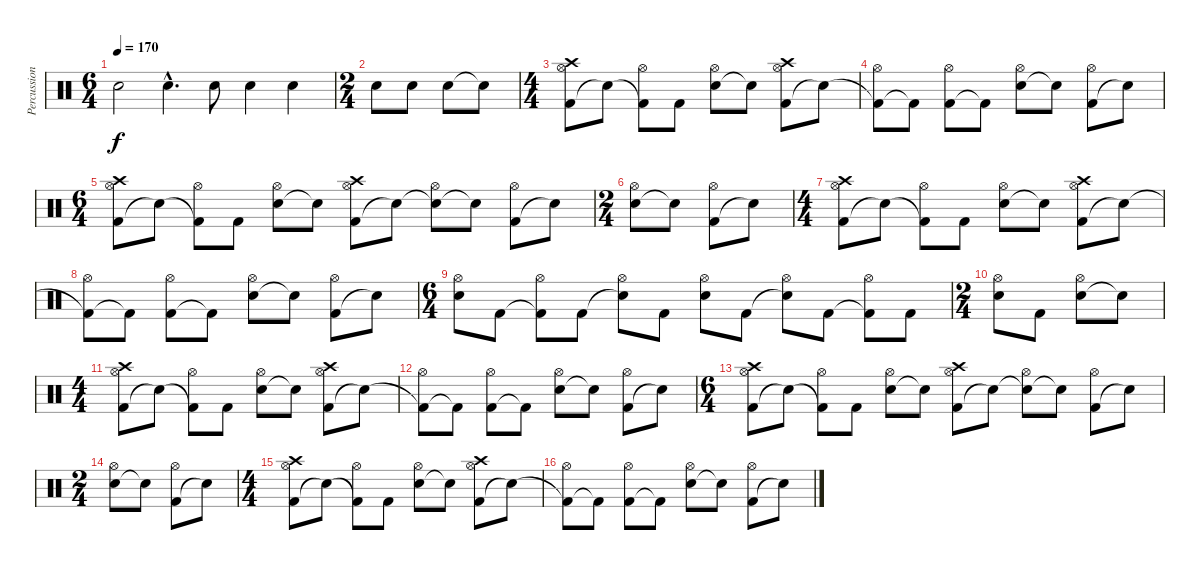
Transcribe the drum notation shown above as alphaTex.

\track ("Percussion" "Percussion") {instrument percussion}
\staff {score}
\articulation defaults
\ts (6 4)
\tempo 170
\clef neutral
\ks c "Electric Snare (hit)".2{dy f} "Electric Snare (hit)"{hac}.4{d} "Electric Snare (hit)".8 "Electric Snare (hit)".4 "Electric Snare (hit)".4
|
\ts (2 4)
"Electric Snare (hit)".8 "Electric Snare (hit)".8 "Electric Snare (hit)".8 "Snare (hit)"{t}.8 |
\ts (4 4)
("Kick (hit) 2" "Hi-Hat (open)" "Crash high (hit)").8 "Snare (hit)"{t}.8 ("Kick (hit) 2"{t} "Hi-Hat (open)").8 "Kick (hit) 2".8 ("Electric Snare (hit)" "Hi-Hat (open)").8 "Snare (hit)"{t}.8 ("Kick (hit) 2" "Hi-Hat (open)" "Crash high (hit)").8 "Snare (hit)"{t}.8 |
("Kick (hit) 2"{t} "Hi-Hat (open)").8 "Kick (hit) 2"{t}.8 ("Kick (hit) 2" "Hi-Hat (open)").8 "Kick (hit) 2"{t}.8 ("Electric Snare (hit)" "Hi-Hat (open)").8 "Snare (hit)"{t}.8 ("Kick (hit) 2" "Hi-Hat (open)").8 "Snare (hit)"{t}.8 |
\ts (6 4)
("Kick (hit) 2" "Hi-Hat (open)" "Crash high (hit)").8 "Snare (hit)"{t}.8 ("Kick (hit) 2"{t} "Hi-Hat (open)").8 "Kick (hit) 2".8 ("Electric Snare (hit)" "Hi-Hat (open)").8 "Snare (hit)"{t}.8 ("Kick (hit) 2" "Hi-Hat (open)" "Crash high (hit)").8 "Snare (hit)"{t}.8 ("Snare (hit)"{t} "Hi-Hat (open)").8 "Snare (hit)"{t}.8 ("Kick (hit) 2" "Hi-Hat (open)").8 "Snare (hit)"{t}.8 |
\ts (2 4)
("Electric Snare (hit)" "Hi-Hat (open)").8 "Snare (hit)"{t}.8 ("Kick (hit) 2" "Hi-Hat (open)").8 "Snare (hit)"{t}.8 |
\ts (4 4)
("Kick (hit) 2" "Hi-Hat (open)" "Crash high (hit)").8 "Snare (hit)"{t}.8 ("Kick (hit) 2"{t} "Hi-Hat (open)").8 "Kick (hit) 2".8 ("Electric Snare (hit)" "Hi-Hat (open)").8 "Snare (hit)"{t}.8 ("Kick (hit) 2" "Hi-Hat (open)" "Crash high (hit)").8 "Snare (hit)"{t}.8 |
("Kick (hit) 2"{t} "Hi-Hat (open)").8 "Kick (hit) 2"{t}.8 ("Kick (hit) 2" "Hi-Hat (open)").8 "Kick (hit) 2"{t}.8 ("Electric Snare (hit)" "Hi-Hat (open)").8 "Snare (hit)"{t}.8 ("Kick (hit) 2" "Hi-Hat (open)").8 "Snare (hit)"{t}.8 |
\ts (6 4)
("Electric Snare (hit)" "Hi-Hat (open)").8 "Kick (hit) 2".8 ("Kick (hit) 2"{t} "Hi-Hat (open)").8 "Kick (hit) 2".8 ("Electric Snare (hit)"{t} "Hi-Hat (open)").8 "Kick (hit) 2".8 ("Electric Snare (hit)" "Hi-Hat (open)").8 "Kick (hit) 2".8 ("Snare (hit)"{t} "Hi-Hat (open)").8 "Kick (hit) 2".8 ("Kick (hit) 2"{t} "Hi-Hat (open)").8 "Kick (hit) 2".8 |
\ts (2 4)
("Electric Snare (hit)" "Hi-Hat (open)").8 "Kick (hit) 2".8 ("Electric Snare (hit)" "Hi-Hat (open)").8 "Snare (hit)"{t}.8 |
\ts (4 4)
("Kick (hit) 2" "Hi-Hat (open)" "Crash high (hit)").8 "Snare (hit)"{t}.8 ("Kick (hit) 2"{t} "Hi-Hat (open)").8 "Kick (hit) 2".8 ("Electric Snare (hit)" "Hi-Hat (open)").8 "Snare (hit)"{t}.8 ("Kick (hit) 2" "Hi-Hat (open)" "Crash high (hit)").8 "Snare (hit)"{t}.8 |
("Kick (hit) 2"{t} "Hi-Hat (open)").8 "Kick (hit) 2"{t}.8 ("Kick (hit) 2" "Hi-Hat (open)").8 "Kick (hit) 2"{t}.8 ("Electric Snare (hit)" "Hi-Hat (open)").8 "Snare (hit)"{t}.8 ("Kick (hit) 2" "Hi-Hat (open)").8 "Snare (hit)"{t}.8 |
\ts (6 4)
("Kick (hit) 2" "Hi-Hat (open)" "Crash high (hit)").8 "Snare (hit)"{t}.8 ("Kick (hit) 2"{t} "Hi-Hat (open)").8 "Kick (hit) 2".8 ("Electric Snare (hit)" "Hi-Hat (open)").8 "Snare (hit)"{t}.8 ("Kick (hit) 2" "Hi-Hat (open)" "Crash high (hit)").8 "Snare (hit)"{t}.8 ("Snare (hit)"{t} "Hi-Hat (open)").8 "Snare (hit)"{t}.8 ("Kick (hit) 2" "Hi-Hat (open)").8 "Snare (hit)"{t}.8 |
\ts (2 4)
("Electric Snare (hit)" "Hi-Hat (open)").8 "Snare (hit)"{t}.8 ("Kick (hit) 2" "Hi-Hat (open)").8 "Snare (hit)"{t}.8 |
\ts (4 4)
("Kick (hit) 2" "Hi-Hat (open)" "Crash high (hit)").8 "Snare (hit)"{t}.8 ("Kick (hit) 2"{t} "Hi-Hat (open)").8 "Kick (hit) 2".8 ("Electric Snare (hit)" "Hi-Hat (open)").8 "Snare (hit)"{t}.8 ("Kick (hit) 2" "Hi-Hat (open)" "Crash high (hit)").8 "Snare (hit)"{t}.8 |
("Kick (hit) 2"{t} "Hi-Hat (open)").8 "Kick (hit) 2"{t}.8 ("Kick (hit) 2" "Hi-Hat (open)").8 "Kick (hit) 2"{t}.8 ("Electric Snare (hit)" "Hi-Hat (open)").8 "Snare (hit)"{t}.8 ("Kick (hit) 2" "Hi-Hat (open)").8 "Snare (hit)"{t}.8
